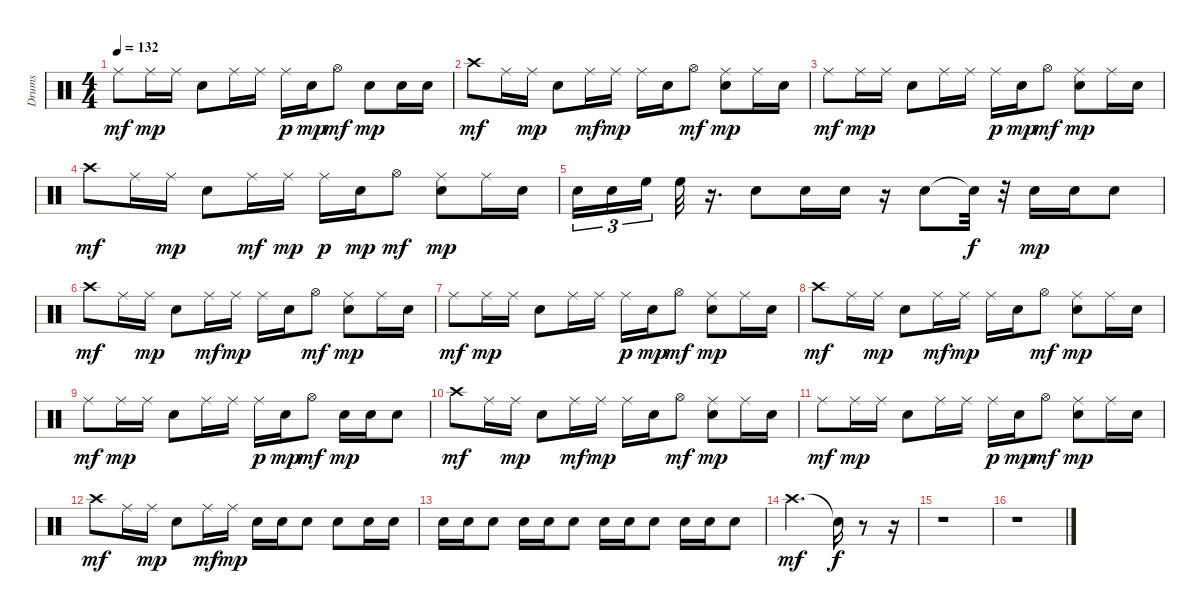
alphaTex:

\track ("Drums" "Drums") {instrument percussion}
\staff {score}
\articulation defaults
\ts (4 4)
\tempo 132
\clef neutral
\ks c "Ride (middle)".8{dy mf} "Ride (middle)".16{dy mp} "Ride (middle)".16 "Electric Snare (hit)".8 "Ride (middle)".16 "Ride (middle)".16 "Ride (middle)".16{dy p} "Electric Snare (hit)".16{dy mp} "Hi-Hat (open)".8{dy mf} "Electric Snare (hit)".8{dy mp} "Electric Snare (hit)".16 "Electric Snare (hit)".16
|
"Crash high (hit)".8{dy mf} "Ride (middle)".16 "Ride (middle)".16{dy mp} "Electric Snare (hit)".8 "Ride (middle)".16{dy mf} "Ride (middle)".16{dy mp} "Ride (middle)".16 "Electric Snare (hit)".16 "Hi-Hat (open)".8{dy mf} ("Electric Snare (hit)" "Ride (middle)").8{dy mp} "Ride (middle)".16 "Electric Snare (hit)".16 |
"Ride (middle)".8{dy mf} "Ride (middle)".16{dy mp} "Ride (middle)".16 "Electric Snare (hit)".8 "Ride (middle)".16 "Ride (middle)".16 "Ride (middle)".16{dy p} "Electric Snare (hit)".16{dy mp} "Hi-Hat (open)".8{dy mf} ("Electric Snare (hit)" "Ride (middle)").8{dy mp} "Ride (middle)".16 "Electric Snare (hit)".16 |
"Crash high (hit)".8{dy mf} "Ride (middle)".16 "Ride (middle)".16{dy mp} "Electric Snare (hit)".8 "Ride (middle)".16{dy mf} "Ride (middle)".16{dy mp} "Ride (middle)".16{dy p} "Electric Snare (hit)".16{dy mp} "Hi-Hat (open)".8{dy mf} ("Ride (middle)" "Electric Snare (hit)").8{dy mp} "Ride (middle)".16 "Electric Snare (hit)".16 |
"Electric Snare (hit)".16{tu (3 2)} "Electric Snare (hit)".16{tu (3 2)} "High Floor Tom (hit)".16{tu (3 2)} "High Floor Tom (hit)".32 r.16{d} "Electric Snare (hit)".8 "Electric Snare (hit)".16 "Electric Snare (hit)".16 r.16 "Electric Snare (hit)".8 "Snare (hit)"{t}.32{dy f} r.32 "Electric Snare (hit)".16{dy mp} "Electric Snare (hit)".16 "Electric Snare (hit)".8 |
"Crash high (hit)".8{dy mf} "Ride (middle)".16 "Ride (middle)".16{dy mp} "Electric Snare (hit)".8 "Ride (middle)".16{dy mf} "Ride (middle)".16{dy mp} "Ride (middle)".16 "Electric Snare (hit)".16 "Hi-Hat (open)".8{dy mf} ("Ride (middle)" "Electric Snare (hit)").8{dy mp} "Ride (middle)".16 "Electric Snare (hit)".16 |
"Ride (middle)".8{dy mf} "Ride (middle)".16{dy mp} "Ride (middle)".16 "Electric Snare (hit)".8 "Ride (middle)".16 "Ride (middle)".16 "Ride (middle)".16{dy p} "Electric Snare (hit)".16{dy mp} "Hi-Hat (open)".8{dy mf} ("Electric Snare (hit)" "Ride (middle)").8{dy mp} "Ride (middle)".16 "Electric Snare (hit)".16 |
"Crash high (hit)".8{dy mf} "Ride (middle)".16 "Ride (middle)".16{dy mp} "Electric Snare (hit)".8 "Ride (middle)".16{dy mf} "Ride (middle)".16{dy mp} "Ride (middle)".16 "Electric Snare (hit)".16 "Hi-Hat (open)".8{dy mf} ("Ride (middle)" "Electric Snare (hit)").8{dy mp} "Ride (middle)".16 "Electric Snare (hit)".16 |
"Ride (middle)".8{dy mf} "Ride (middle)".16{dy mp} "Ride (middle)".16 "Electric Snare (hit)".8 "Ride (middle)".16 "Ride (middle)".16 "Ride (middle)".16{dy p} "Electric Snare (hit)".16{dy mp} "Hi-Hat (open)".8{dy mf} "Electric Snare (hit)".16{dy mp} "Electric Snare (hit)".16 "Electric Snare (hit)".8 |
"Crash high (hit)".8{dy mf} "Ride (middle)".16 "Ride (middle)".16{dy mp} "Electric Snare (hit)".8 "Ride (middle)".16{dy mf} "Ride (middle)".16{dy mp} "Ride (middle)".16 "Electric Snare (hit)".16 "Hi-Hat (open)".8{dy mf} ("Ride (middle)" "Electric Snare (hit)").8{dy mp} "Ride (middle)".16 "Electric Snare (hit)".16 |
"Ride (middle)".8{dy mf} "Ride (middle)".16{dy mp} "Ride (middle)".16 "Electric Snare (hit)".8 "Ride (middle)".16 "Ride (middle)".16 "Ride (middle)".16{dy p} "Electric Snare (hit)".16{dy mp} "Hi-Hat (open)".8{dy mf} ("Ride (middle)" "Electric Snare (hit)").8{dy mp} "Ride (middle)".16 "Electric Snare (hit)".16 |
"Crash high (hit)".8{dy mf} "Ride (middle)".16 "Ride (middle)".16{dy mp} "Electric Snare (hit)".8 "Ride (middle)".16{dy mf} "Ride (middle)".16{dy mp} "Electric Snare (hit)".16 "Electric Snare (hit)".16 "Electric Snare (hit)".8 "Electric Snare (hit)".8 "Electric Snare (hit)".16 "Electric Snare (hit)".16 |
"Electric Snare (hit)".16 "Electric Snare (hit)".16 "Electric Snare (hit)".8 "Electric Snare (hit)".16 "Electric Snare (hit)".16 "Electric Snare (hit)".8 "Electric Snare (hit)".16 "Electric Snare (hit)".16 "Electric Snare (hit)".8 "Electric Snare (hit)".16 "Electric Snare (hit)".16 "Electric Snare (hit)".8 |
"Crash high (hit)".2{d dy mf} "Snare (hit)"{t}.16{dy f} r.8 r.16 |
r.1 |
r.1
